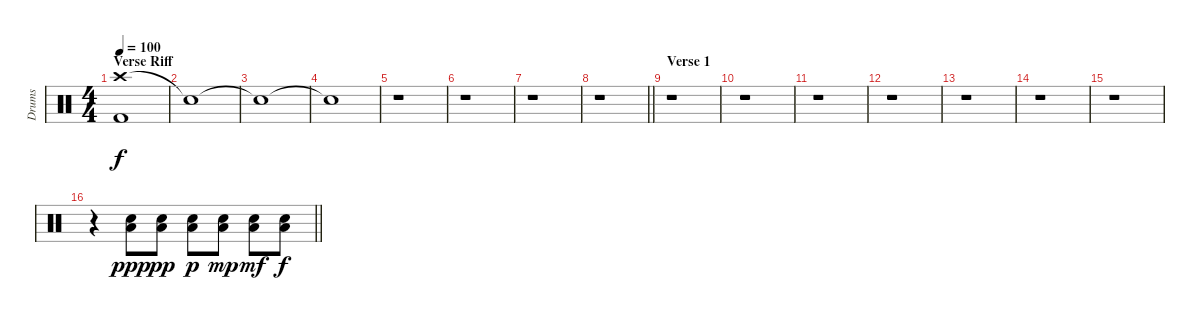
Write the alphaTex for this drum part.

\track ("Drums" "Drums") {instrument percussion}
\staff {score}
\articulation defaults
\ts (4 4)
\section ("" "Verse Riff")
\tempo 100
\clef neutral
\ks c
("Crash high (hit)" "Kick (hit) 2").1{dy f} |
"Snare (hit)"{t}.1 |
"Snare (hit)"{t}.1 |
"Snare (hit)"{t}.1 |
r.1 |
r.1 |
r.1 |
\barLineRight lightlight
r.1 |
\section ("" "Verse 1")
r.1 |
r.1 |
r.1 |
r.1 |
r.1 |
r.1 |
r.1 |
\barLineRight lightlight
r.4 ("Low Tom (hit)" "Snare (hit) 2").8{dy ppp} ("Low Tom (hit)" "Snare (hit) 2").8{dy pp} ("Low Tom (hit)" "Snare (hit) 2").8{dy p} ("Low Tom (hit)" "Snare (hit) 2").8{dy mp} ("Low Tom (hit)" "Snare (hit) 2").8{dy mf} ("Low Tom (hit)" "Snare (hit) 2").8{dy f}
